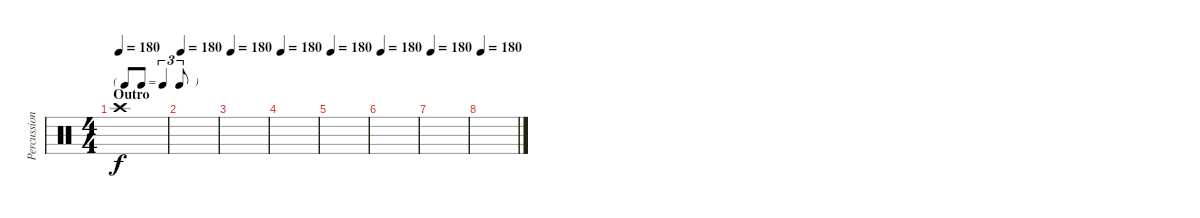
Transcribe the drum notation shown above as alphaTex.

\track ("Percussion" "Percussion") {instrument percussion}
\staff {score}
\articulation defaults
\ts (4 4)
\tf triplet8th
\section ("" "Outro")
\tempo 180
\clef neutral
\ks c "Crash high (hit)".1{dy f}
|
\tempo 180
|
\tempo 180
|
\tempo 180
|
\tempo 180
|
\tempo 180
|
\tempo 180
|
\tempo 180
